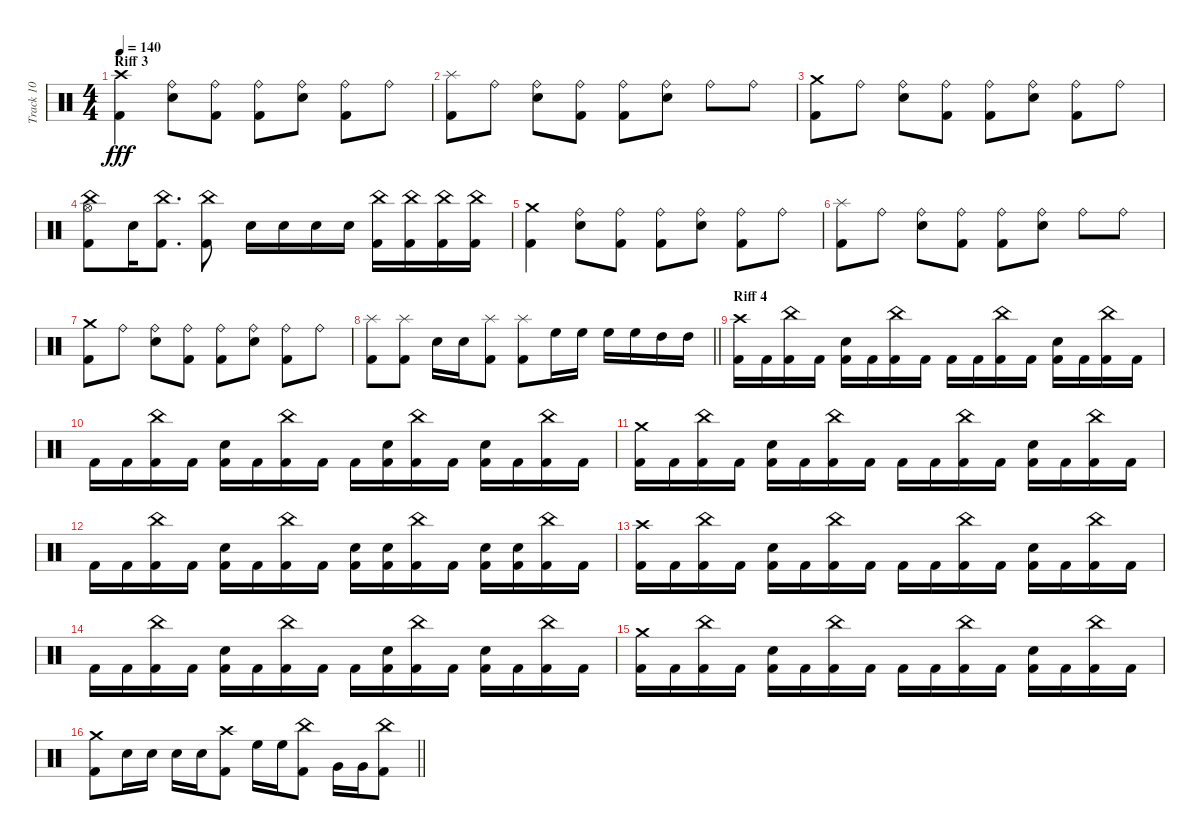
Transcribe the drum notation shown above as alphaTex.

\track ("Track 10" "Track 10") {instrument percussion}
\staff {score}
\articulation defaults
\ts (4 4)
\section ("" "Riff 3")
\tempo 140
\clef neutral
\ks c
("Kick (hit) 2" "Crash high (hit)").4{dy fff} ("Ride (bell)" "Snare (hit) 2").8 ("Ride (bell)" "Kick (hit) 2").8 ("Kick (hit) 2" "Ride (bell)").8 ("Ride (bell)" "Snare (hit) 2").8 ("Kick (hit) 2" "Ride (bell)").8 "Ride (bell)".8 |
("Kick (hit) 2" "Splash (hit)").8 "Ride (bell)".8 ("Snare (hit) 2" "Ride (bell)").8 ("Ride (bell)" "Kick (hit) 2").8 ("Ride (bell)" "Kick (hit) 2").8 ("Snare (hit) 2" "Ride (bell)").8 "Ride (bell)".8 "Ride (bell)".8 |
("Kick (hit) 2" "Crash medium (hit)").8 "Ride (bell)".8 ("Snare (hit) 2" "Ride (bell)").8 ("Ride (bell)" "Kick (hit) 2").8 ("Kick (hit) 2" "Ride (bell)").8 ("Ride (bell)" "Snare (hit) 2").8 ("Ride (bell)" "Kick (hit) 2").8 "Ride (bell)".8 |
("China (hit)" "Hi-Hat (open)" "Kick (hit) 2").8 "Snare (hit) 2".16 ("China (hit)" "Kick (hit) 2").8{d} ("Kick (hit) 2" "China (hit)").8 "Snare (hit) 2".16 "Snare (hit) 2".16 "Snare (hit) 2".16 "Snare (hit) 2".16 ("China (hit)" "Kick (hit) 2").16 ("Kick (hit) 2" "China (hit)").16 ("China (hit)" "Kick (hit) 2").16 ("Kick (hit) 2" "China (hit)").16 |
("Kick (hit) 2" "Crash medium (hit)").4 ("Ride (bell)" "Snare (hit) 2").8 ("Ride (bell)" "Kick (hit) 2").8 ("Kick (hit) 2" "Ride (bell)").8 ("Ride (bell)" "Snare (hit) 2").8 ("Kick (hit) 2" "Ride (bell)").8 "Ride (bell)".8 |
("Splash (hit)" "Kick (hit) 2").8 "Ride (bell)".8 ("Snare (hit) 2" "Ride (bell)").8 ("Kick (hit) 2" "Ride (bell)").8 ("Ride (bell)" "Kick (hit) 2").8 ("Ride (bell)" "Snare (hit) 2").8 "Ride (bell)".8 "Ride (bell)".8 |
("Crash medium (hit)" "Kick (hit) 2").8 "Ride (bell)".8 ("Snare (hit) 2" "Ride (bell)").8 ("Ride (bell)" "Kick (hit) 2").8 ("Kick (hit) 2" "Ride (bell)").8 ("Ride (bell)" "Snare (hit) 2").8 ("Ride (bell)" "Kick (hit) 2").8 "Ride (bell)".8 |
\barLineRight lightlight
("Kick (hit) 2" "Splash (hit)").8 ("Kick (hit) 2" "Splash (hit)").8 "Snare (hit) 2".16 "Snare (hit) 2".16 ("Splash (hit)" "Kick (hit) 2").8 ("Splash (hit)" "Kick (hit) 2").8 "High Floor Tom (hit)".16 "High Floor Tom (hit)".16 "High Floor Tom (hit)".16 "High Floor Tom (hit)".16 "High Tom (hit)".16 "High Tom (hit)".16 |
\section ("" "Riff 4")
("Crash high (hit)" "Kick (hit) 2").16 "Kick (hit) 2".16 ("China (hit)" "Kick (hit) 2").16 "Kick (hit) 2".16 ("Snare (hit) 2" "Kick (hit) 2").16 "Kick (hit) 2".16 ("Kick (hit) 2" "China (hit)").16 "Kick (hit) 2".16 "Kick (hit) 2".16 "Kick (hit) 2".16 ("China (hit)" "Kick (hit) 2").16 "Kick (hit) 2".16 ("Snare (hit) 2" "Kick (hit) 2").16 "Kick (hit) 2".16 ("Kick (hit) 2" "China (hit)").16 "Kick (hit) 2".16 |
"Kick (hit) 2".16 "Kick (hit) 2".16 ("China (hit)" "Kick (hit) 2").16 "Kick (hit) 2".16 ("Kick (hit) 2" "Snare (hit) 2").16 "Kick (hit) 2".16 ("Kick (hit) 2" "China (hit)").16 "Kick (hit) 2".16 "Kick (hit) 2".16 ("Kick (hit) 2" "Snare (hit) 2").16 ("Kick (hit) 2" "China (hit)").16 "Kick (hit) 2".16 ("Kick (hit) 2" "Snare (hit) 2").16 "Kick (hit) 2".16 ("China (hit)" "Kick (hit) 2").16 "Kick (hit) 2".16 |
("Crash medium (hit)" "Kick (hit) 2").16 "Kick (hit) 2".16 ("Kick (hit) 2" "China (hit)").16 "Kick (hit) 2".16 ("Snare (hit) 2" "Kick (hit) 2").16 "Kick (hit) 2".16 ("China (hit)" "Kick (hit) 2").16 "Kick (hit) 2".16 "Kick (hit) 2".16 "Kick (hit) 2".16 ("Kick (hit) 2" "China (hit)").16 "Kick (hit) 2".16 ("Snare (hit) 2" "Kick (hit) 2").16 "Kick (hit) 2".16 ("China (hit)" "Kick (hit) 2").16 "Kick (hit) 2".16 |
"Kick (hit) 2".16 "Kick (hit) 2".16 ("China (hit)" "Kick (hit) 2").16 "Kick (hit) 2".16 ("Snare (hit) 2" "Kick (hit) 2").16 "Kick (hit) 2".16 ("Kick (hit) 2" "China (hit)").16 "Kick (hit) 2".16 ("Snare (hit) 2" "Kick (hit) 2").16 ("Snare (hit) 2" "Kick (hit) 2").16 ("Kick (hit) 2" "China (hit)").16 "Kick (hit) 2".16 ("Kick (hit) 2" "Snare (hit) 2").16 ("Snare (hit) 2" "Kick (hit) 2").16 ("Kick (hit) 2" "China (hit)").16 "Kick (hit) 2".16 |
("Crash high (hit)" "Kick (hit) 2").16 "Kick (hit) 2".16 ("Kick (hit) 2" "China (hit)").16 "Kick (hit) 2".16 ("Kick (hit) 2" "Snare (hit) 2").16 "Kick (hit) 2".16 ("China (hit)" "Kick (hit) 2").16 "Kick (hit) 2".16 "Kick (hit) 2".16 "Kick (hit) 2".16 ("Kick (hit) 2" "China (hit)").16 "Kick (hit) 2".16 ("Snare (hit) 2" "Kick (hit) 2").16 "Kick (hit) 2".16 ("China (hit)" "Kick (hit) 2").16 "Kick (hit) 2".16 |
"Kick (hit) 2".16 "Kick (hit) 2".16 ("China (hit)" "Kick (hit) 2").16 "Kick (hit) 2".16 ("Snare (hit) 2" "Kick (hit) 2").16 "Kick (hit) 2".16 ("Kick (hit) 2" "China (hit)").16 "Kick (hit) 2".16 "Kick (hit) 2".16 ("Snare (hit) 2" "Kick (hit) 2").16 ("Kick (hit) 2" "China (hit)").16 "Kick (hit) 2".16 ("Snare (hit) 2" "Kick (hit) 2").16 "Kick (hit) 2".16 ("China (hit)" "Kick (hit) 2").16 "Kick (hit) 2".16 |
("Crash medium (hit)" "Kick (hit) 2").16 "Kick (hit) 2".16 ("China (hit)" "Kick (hit) 2").16 "Kick (hit) 2".16 ("Kick (hit) 2" "Snare (hit) 2").16 "Kick (hit) 2".16 ("Kick (hit) 2" "China (hit)").16 "Kick (hit) 2".16 "Kick (hit) 2".16 "Kick (hit) 2".16 ("China (hit)" "Kick (hit) 2").16 "Kick (hit) 2".16 ("Snare (hit) 2" "Kick (hit) 2").16 "Kick (hit) 2".16 ("Kick (hit) 2" "China (hit)").16 "Kick (hit) 2".16 |
\barLineRight lightlight
("Crash medium (hit)" "Kick (hit) 2").8 "Snare (hit) 2".16 "Snare (hit) 2".16 "Snare (hit) 2".16 "Snare (hit) 2".16 ("Crash high (hit)" "Kick (hit) 2").8 "High Floor Tom (hit)".16 "High Floor Tom (hit)".16 ("Kick (hit) 2" "China (hit)").8 "Very Low Tom (hit)".16 "Very Low Tom (hit)".16 ("China (hit)" "Kick (hit) 2").8
